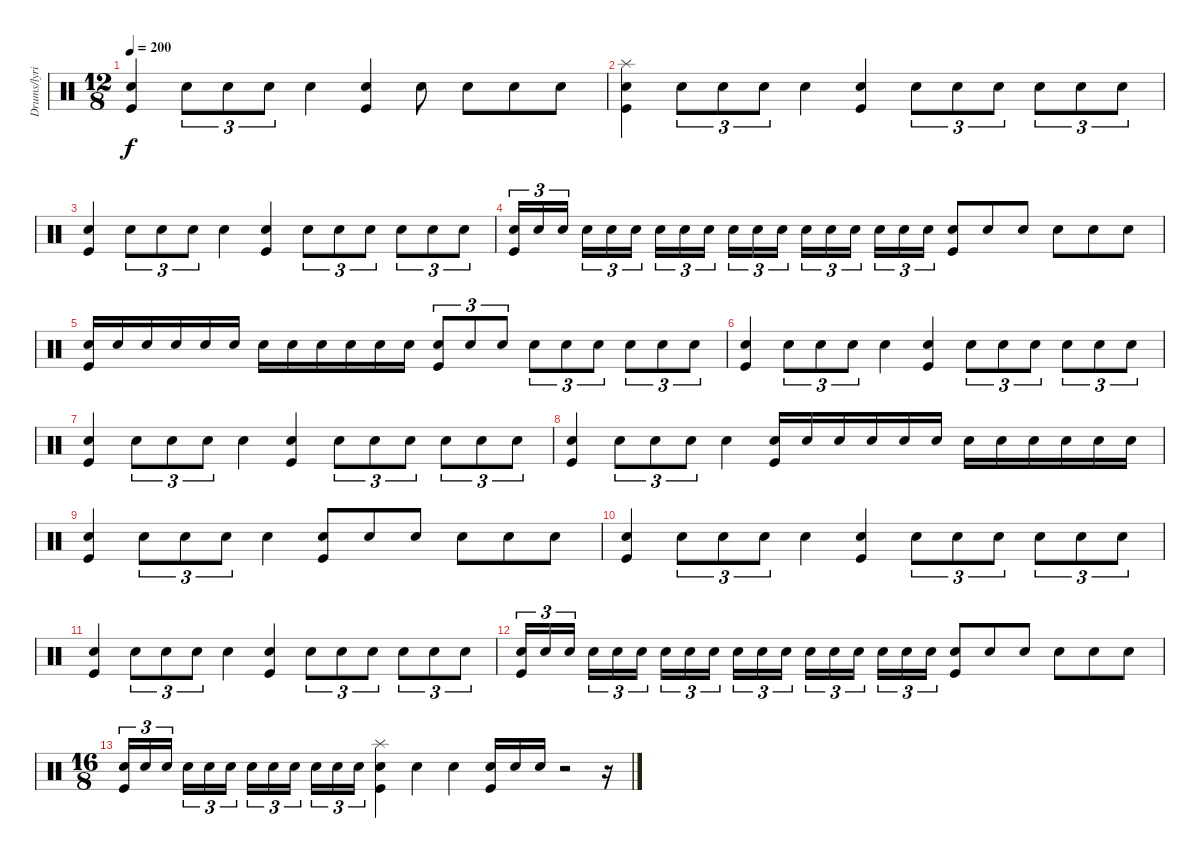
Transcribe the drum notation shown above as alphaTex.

\track ("Drums/lyrics" "Drums/lyri") {instrument percussion}
\staff {score}
\articulation defaults
\ts (12 8)
\tempo 200
\clef neutral
\ks c
("Snare (hit) 2" "Kick (hit)").4{dy f} "Snare (hit) 2".8{tu (3 2)} "Snare (hit) 2".8{tu (3 2)} "Snare (hit) 2".8{tu (3 2)} "Snare (hit) 2".4 ("Snare (hit) 2" "Kick (hit)").4 "Snare (hit) 2".8 "Snare (hit) 2".8 "Snare (hit) 2".8 "Snare (hit) 2".8 |
("Splash (hit)" "Snare (hit) 2" "Kick (hit)").4 "Snare (hit) 2".8{tu (3 2)} "Snare (hit) 2".8{tu (3 2)} "Snare (hit) 2".8{tu (3 2)} "Snare (hit) 2".4 ("Snare (hit) 2" "Kick (hit)").4 "Snare (hit) 2".8{tu (3 2)} "Snare (hit) 2".8{tu (3 2)} "Snare (hit) 2".8{tu (3 2)} "Snare (hit) 2".8{tu (3 2)} "Snare (hit) 2".8{tu (3 2)} "Snare (hit) 2".8{tu (3 2)} |
("Snare (hit) 2" "Kick (hit)").4 "Snare (hit) 2".8{tu (3 2)} "Snare (hit) 2".8{tu (3 2)} "Snare (hit) 2".8{tu (3 2)} "Snare (hit) 2".4 ("Snare (hit) 2" "Kick (hit)").4 "Snare (hit) 2".8{tu (3 2)} "Snare (hit) 2".8{tu (3 2)} "Snare (hit) 2".8{tu (3 2)} "Snare (hit) 2".8{tu (3 2)} "Snare (hit) 2".8{tu (3 2)} "Snare (hit) 2".8{tu (3 2)} |
("Snare (hit) 2" "Kick (hit)").16{tu (3 2)} "Snare (hit) 2".16{tu (3 2)} "Snare (hit) 2".16{tu (3 2)} "Snare (hit) 2".16{tu (3 2)} "Snare (hit) 2".16{tu (3 2)} "Snare (hit) 2".16{tu (3 2)} "Snare (hit) 2".16{tu (3 2)} "Snare (hit) 2".16{tu (3 2)} "Snare (hit) 2".16{tu (3 2)} "Snare (hit) 2".16{tu (3 2)} "Snare (hit) 2".16{tu (3 2)} "Snare (hit) 2".16{tu (3 2)} "Snare (hit) 2".16{tu (3 2)} "Snare (hit) 2".16{tu (3 2)} "Snare (hit) 2".16{tu (3 2)} "Snare (hit) 2".16{tu (3 2)} "Snare (hit) 2".16{tu (3 2)} "Snare (hit) 2".16{tu (3 2)} ("Snare (hit) 2" "Kick (hit)").8 "Snare (hit) 2".8 "Snare (hit) 2".8 "Snare (hit) 2".8 "Snare (hit) 2".8 "Snare (hit) 2".8 |
("Snare (hit) 2" "Kick (hit)").16 "Snare (hit) 2".16 "Snare (hit) 2".16 "Snare (hit) 2".16 "Snare (hit) 2".16 "Snare (hit) 2".16 "Snare (hit) 2".16 "Snare (hit) 2".16 "Snare (hit) 2".16 "Snare (hit) 2".16 "Snare (hit) 2".16 "Snare (hit) 2".16 ("Snare (hit) 2" "Kick (hit)").8{tu (3 2)} "Snare (hit) 2".8{tu (3 2)} "Snare (hit) 2".8{tu (3 2)} "Snare (hit) 2".8{tu (3 2)} "Snare (hit) 2".8{tu (3 2)} "Snare (hit) 2".8{tu (3 2)} "Snare (hit) 2".8{tu (3 2)} "Snare (hit) 2".8{tu (3 2)} "Snare (hit) 2".8{tu (3 2)} |
("Snare (hit) 2" "Kick (hit)").4 "Snare (hit) 2".8{tu (3 2)} "Snare (hit) 2".8{tu (3 2)} "Snare (hit) 2".8{tu (3 2)} "Snare (hit) 2".4 ("Snare (hit) 2" "Kick (hit)").4 "Snare (hit) 2".8{tu (3 2)} "Snare (hit) 2".8{tu (3 2)} "Snare (hit) 2".8{tu (3 2)} "Snare (hit) 2".8{tu (3 2)} "Snare (hit) 2".8{tu (3 2)} "Snare (hit) 2".8{tu (3 2)} |
("Snare (hit) 2" "Kick (hit)").4 "Snare (hit) 2".8{tu (3 2)} "Snare (hit) 2".8{tu (3 2)} "Snare (hit) 2".8{tu (3 2)} "Snare (hit) 2".4 ("Snare (hit) 2" "Kick (hit)").4 "Snare (hit) 2".8{tu (3 2)} "Snare (hit) 2".8{tu (3 2)} "Snare (hit) 2".8{tu (3 2)} "Snare (hit) 2".8{tu (3 2)} "Snare (hit) 2".8{tu (3 2)} "Snare (hit) 2".8{tu (3 2)} |
("Snare (hit) 2" "Kick (hit)").4 "Snare (hit) 2".8{tu (3 2)} "Snare (hit) 2".8{tu (3 2)} "Snare (hit) 2".8{tu (3 2)} "Snare (hit) 2".4 ("Snare (hit) 2" "Kick (hit)").16 "Snare (hit) 2".16 "Snare (hit) 2".16 "Snare (hit) 2".16 "Snare (hit) 2".16 "Snare (hit) 2".16 "Snare (hit) 2".16 "Snare (hit) 2".16 "Snare (hit) 2".16 "Snare (hit) 2".16 "Snare (hit) 2".16 "Snare (hit) 2".16 |
("Snare (hit) 2" "Kick (hit)").4 "Snare (hit) 2".8{tu (3 2)} "Snare (hit) 2".8{tu (3 2)} "Snare (hit) 2".8{tu (3 2)} "Snare (hit) 2".4 ("Snare (hit) 2" "Kick (hit)").8 "Snare (hit) 2".8 "Snare (hit) 2".8 "Snare (hit) 2".8 "Snare (hit) 2".8 "Snare (hit) 2".8 |
("Snare (hit) 2" "Kick (hit)").4 "Snare (hit) 2".8{tu (3 2)} "Snare (hit) 2".8{tu (3 2)} "Snare (hit) 2".8{tu (3 2)} "Snare (hit) 2".4 ("Snare (hit) 2" "Kick (hit)").4 "Snare (hit) 2".8{tu (3 2)} "Snare (hit) 2".8{tu (3 2)} "Snare (hit) 2".8{tu (3 2)} "Snare (hit) 2".8{tu (3 2)} "Snare (hit) 2".8{tu (3 2)} "Snare (hit) 2".8{tu (3 2)} |
("Snare (hit) 2" "Kick (hit)").4 "Snare (hit) 2".8{tu (3 2)} "Snare (hit) 2".8{tu (3 2)} "Snare (hit) 2".8{tu (3 2)} "Snare (hit) 2".4 ("Snare (hit) 2" "Kick (hit)").4 "Snare (hit) 2".8{tu (3 2)} "Snare (hit) 2".8{tu (3 2)} "Snare (hit) 2".8{tu (3 2)} "Snare (hit) 2".8{tu (3 2)} "Snare (hit) 2".8{tu (3 2)} "Snare (hit) 2".8{tu (3 2)} |
("Snare (hit) 2" "Kick (hit)").16{tu (3 2)} "Snare (hit) 2".16{tu (3 2)} "Snare (hit) 2".16{tu (3 2)} "Snare (hit) 2".16{tu (3 2)} "Snare (hit) 2".16{tu (3 2)} "Snare (hit) 2".16{tu (3 2)} "Snare (hit) 2".16{tu (3 2)} "Snare (hit) 2".16{tu (3 2)} "Snare (hit) 2".16{tu (3 2)} "Snare (hit) 2".16{tu (3 2)} "Snare (hit) 2".16{tu (3 2)} "Snare (hit) 2".16{tu (3 2)} "Snare (hit) 2".16{tu (3 2)} "Snare (hit) 2".16{tu (3 2)} "Snare (hit) 2".16{tu (3 2)} "Snare (hit) 2".16{tu (3 2)} "Snare (hit) 2".16{tu (3 2)} "Snare (hit) 2".16{tu (3 2)} ("Snare (hit) 2" "Kick (hit)").8 "Snare (hit) 2".8 "Snare (hit) 2".8 "Snare (hit) 2".8 "Snare (hit) 2".8 "Snare (hit) 2".8 |
\ts (16 8)
("Snare (hit) 2" "Kick (hit)").16{tu (3 2)} "Snare (hit) 2".16{tu (3 2)} "Snare (hit) 2".16{tu (3 2)} "Snare (hit) 2".16{tu (3 2)} "Snare (hit) 2".16{tu (3 2)} "Snare (hit) 2".16{tu (3 2)} "Snare (hit) 2".16{tu (3 2)} "Snare (hit) 2".16{tu (3 2)} "Snare (hit) 2".16{tu (3 2)} "Snare (hit) 2".16{tu (3 2)} "Snare (hit) 2".16{tu (3 2)} "Snare (hit) 2".16{tu (3 2)} ("Splash (hit)" "Snare (hit) 2" "Kick (hit)").4 "Snare (hit)".4 "Snare (hit)".4 ("Snare (hit) 2" "Kick (hit)").16 "Snare (hit) 2".16 "Snare (hit) 2".16 r.2 r.16
